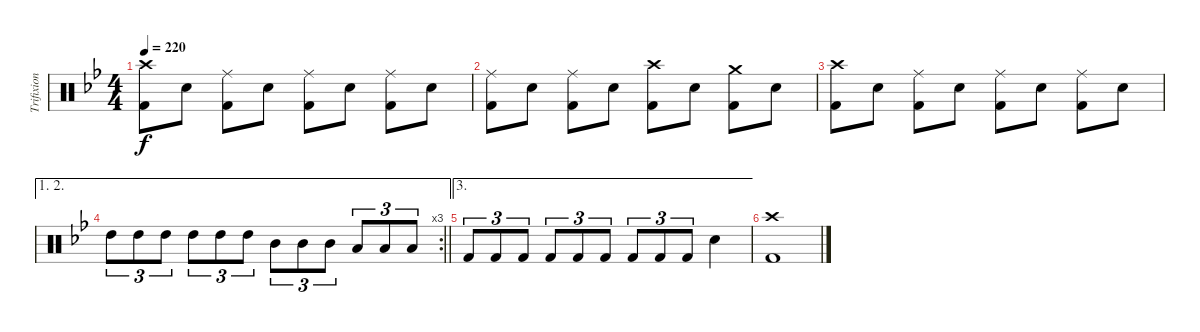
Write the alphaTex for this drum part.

\track ("Trifixion" "Trifixion") {instrument percussion}
\staff {score}
\articulation defaults
\ts (4 4)
\tempo 220
\clef neutral
\ks gminor
("Crash high (hit)" "Kick (hit) 2").8{dy f} "Electric Snare (hit)".8 ("Ride (middle)" "Kick (hit) 2").8 "Electric Snare (hit)".8 ("Ride (middle)" "Kick (hit) 2").8 "Electric Snare (hit)".8 ("Ride (middle)" "Kick (hit) 2").8 "Electric Snare (hit)".8 |
("Ride (middle)" "Kick (hit) 2").8 "Electric Snare (hit)".8 ("Ride (middle)" "Kick (hit) 2").8 "Electric Snare (hit)".8 ("Crash high (hit)" "Kick (hit) 2").8 "Electric Snare (hit)".8 ("Crash medium (hit)" "Kick (hit) 2").8 "Electric Snare (hit)".8 |
("Crash high (hit)" "Kick (hit) 2").8 "Electric Snare (hit)".8 ("Ride (middle)" "Kick (hit) 2").8 "Electric Snare (hit)".8 ("Ride (middle)" "Kick (hit) 2").8 "Electric Snare (hit)".8 ("Ride (middle)" "Kick (hit) 2").8 "Electric Snare (hit)".8 |
\ae (1 2)
\rc 3
\barLineRight lightlight "High Tom (hit)".8{tu (3 2)} "High Tom (hit)".8{tu (3 2)} "High Tom (hit)".8{tu (3 2)} "High Tom (hit)".8{tu (3 2)} "High Tom (hit)".8{tu (3 2)} "High Tom (hit)".8{tu (3 2)} "Mid Tom (hit)".8{tu (3 2)} "Mid Tom (hit)".8{tu (3 2)} "Mid Tom (hit)".8{tu (3 2)} "Low Tom (hit)".8{tu (3 2)} "Low Tom (hit)".8{tu (3 2)} "Low Tom (hit)".8{tu (3 2)}
|
\ae 3 "Kick (hit) 2".8{tu (3 2)} "Kick (hit) 2".8{tu (3 2)} "Kick (hit) 2".8{tu (3 2)} "Kick (hit) 2".8{tu (3 2)} "Kick (hit) 2".8{tu (3 2)} "Kick (hit) 2".8{tu (3 2)} "Kick (hit) 2".8{tu (3 2)} "Kick (hit) 2".8{tu (3 2)} "Kick (hit) 2".8{tu (3 2)} "Electric Snare (hit)".4
|
("Crash high (hit)" "Kick (hit) 2").1
